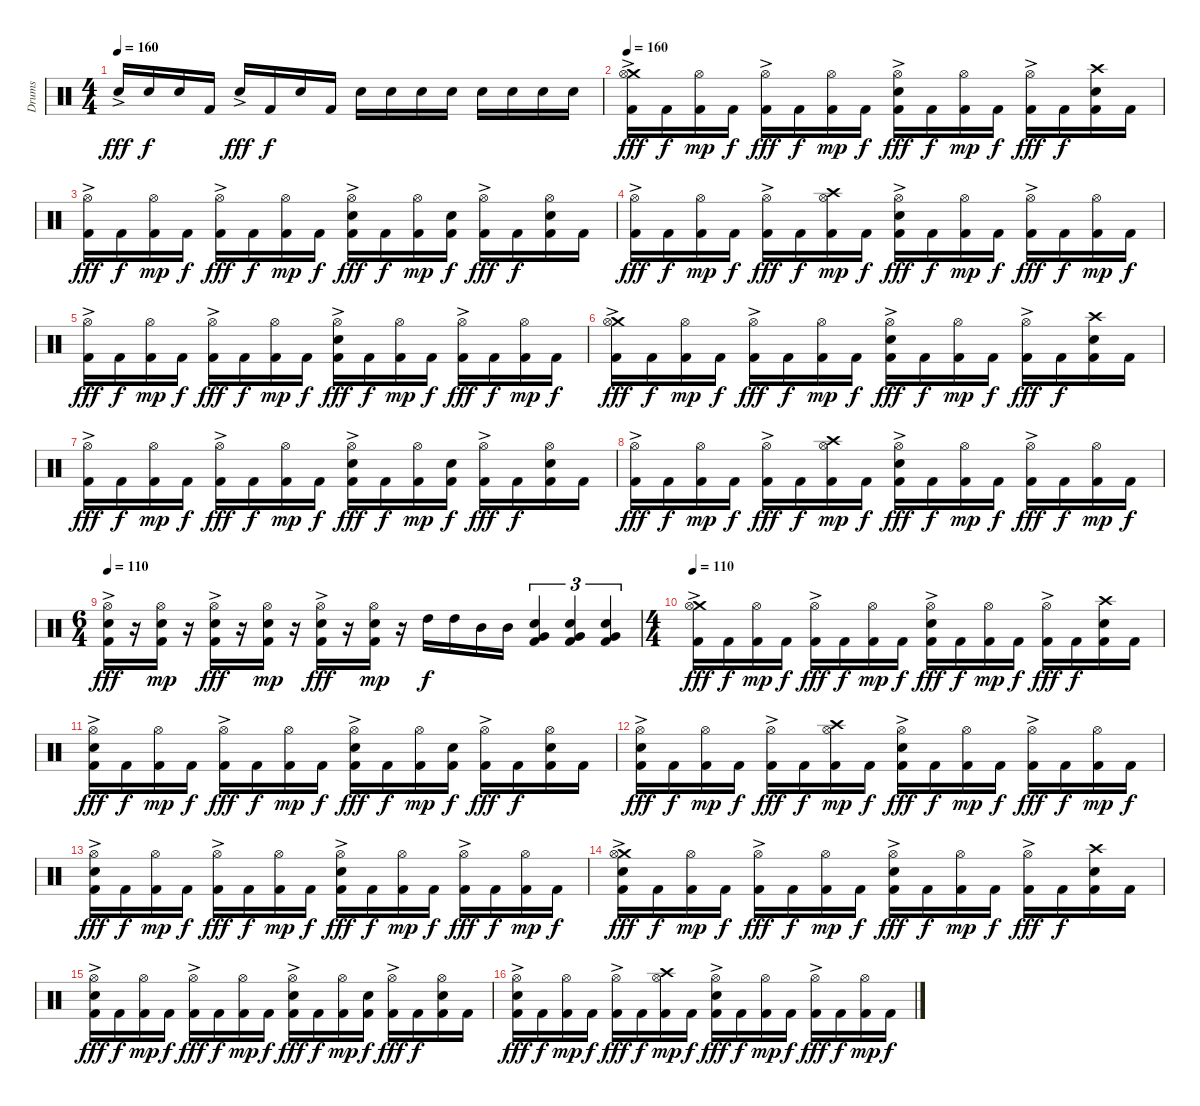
\track ("Drums" "Drums") {instrument percussion}
\staff {score}
\articulation defaults
\ts (4 4)
\tempo 160
\clef neutral
\ks c "Electric Snare (hit)"{ac}.16{dy fff} "Electric Snare (hit)".16{dy f} "Electric Snare (hit)".16 "Kick (hit) 2".16 "Electric Snare (hit)"{ac}.16{dy fff} "Kick (hit) 2".16{dy f} "Electric Snare (hit)".16 "Kick (hit) 2".16 "Electric Snare (hit)".16 "Electric Snare (hit)".16 "Electric Snare (hit)".16 "Electric Snare (hit)".16 "Electric Snare (hit)".16 "Electric Snare (hit)".16 "Electric Snare (hit)".16 "Electric Snare (hit)".16
|
\tempo 160
("Crash medium (hit)" "Hi-Hat (open)"{ac} "Kick (hit) 2").16{dy fff} "Kick (hit) 2".16{dy f} ("Hi-Hat (open)" "Kick (hit) 2").16{dy mp} "Kick (hit) 2".16{dy f} ("Hi-Hat (open)"{ac} "Kick (hit) 2").16{dy fff} "Kick (hit) 2".16{dy f} ("Hi-Hat (open)" "Kick (hit) 2").16{dy mp} "Kick (hit) 2".16{dy f} ("Hi-Hat (open)"{ac} "Electric Snare (hit)" "Kick (hit) 2").16{dy fff} "Kick (hit) 2".16{dy f} ("Hi-Hat (open)" "Kick (hit) 2").16{dy mp} "Kick (hit) 2".16{dy f} ("Hi-Hat (open)"{ac} "Kick (hit) 2").16{dy fff} "Kick (hit) 2".16{dy f} ("Crash high (hit)" "Electric Snare (hit)" "Kick (hit) 2").16 "Kick (hit) 2".16 |
("Hi-Hat (open)"{ac} "Kick (hit) 2").16{dy fff} "Kick (hit) 2".16{dy f} ("Hi-Hat (open)" "Kick (hit) 2").16{dy mp} "Kick (hit) 2".16{dy f} ("Hi-Hat (open)"{ac} "Kick (hit) 2").16{dy fff} "Kick (hit) 2".16{dy f} ("Hi-Hat (open)" "Kick (hit) 2").16{dy mp} "Kick (hit) 2".16{dy f} ("Hi-Hat (open)"{ac} "Electric Snare (hit)" "Kick (hit) 2").16{dy fff} "Kick (hit) 2".16{dy f} ("Hi-Hat (open)" "Kick (hit) 2").16{dy mp} ("Electric Snare (hit)" "Kick (hit) 2").16{dy f} ("Hi-Hat (open)"{ac} "Kick (hit) 2").16{dy fff} "Kick (hit) 2".16{dy f} ("Hi-Hat (open)" "Electric Snare (hit)" "Kick (hit) 2").16 "Kick (hit) 2".16 |
("Hi-Hat (open)"{ac} "Kick (hit) 2").16{dy fff} "Kick (hit) 2".16{dy f} ("Hi-Hat (open)" "Kick (hit) 2").16{dy mp} "Kick (hit) 2".16{dy f} ("Hi-Hat (open)"{ac} "Kick (hit) 2").16{dy fff} "Kick (hit) 2".16{dy f} ("Crash high (hit)" "Hi-Hat (open)" "Kick (hit) 2").16{dy mp} "Kick (hit) 2".16{dy f} ("Hi-Hat (open)"{ac} "Electric Snare (hit)" "Kick (hit) 2").16{dy fff} "Kick (hit) 2".16{dy f} ("Hi-Hat (open)" "Kick (hit) 2").16{dy mp} "Kick (hit) 2".16{dy f} ("Hi-Hat (open)"{ac} "Kick (hit) 2").16{dy fff} "Kick (hit) 2".16{dy f} ("Hi-Hat (open)" "Kick (hit) 2").16{dy mp} "Kick (hit) 2".16{dy f} |
("Hi-Hat (open)"{ac} "Kick (hit) 2").16{dy fff} "Kick (hit) 2".16{dy f} ("Hi-Hat (open)" "Kick (hit) 2").16{dy mp} "Kick (hit) 2".16{dy f} ("Hi-Hat (open)"{ac} "Kick (hit) 2").16{dy fff} "Kick (hit) 2".16{dy f} ("Hi-Hat (open)" "Kick (hit) 2").16{dy mp} "Kick (hit) 2".16{dy f} ("Hi-Hat (open)"{ac} "Electric Snare (hit)" "Kick (hit) 2").16{dy fff} "Kick (hit) 2".16{dy f} ("Hi-Hat (open)" "Kick (hit) 2").16{dy mp} "Kick (hit) 2".16{dy f} ("Hi-Hat (open)"{ac} "Kick (hit) 2").16{dy fff} "Kick (hit) 2".16{dy f} ("Hi-Hat (open)" "Kick (hit) 2").16{dy mp} "Kick (hit) 2".16{dy f} |
("Crash medium (hit)" "Hi-Hat (open)"{ac} "Kick (hit) 2").16{dy fff} "Kick (hit) 2".16{dy f} ("Hi-Hat (open)" "Kick (hit) 2").16{dy mp} "Kick (hit) 2".16{dy f} ("Hi-Hat (open)"{ac} "Kick (hit) 2").16{dy fff} "Kick (hit) 2".16{dy f} ("Hi-Hat (open)" "Kick (hit) 2").16{dy mp} "Kick (hit) 2".16{dy f} ("Hi-Hat (open)"{ac} "Electric Snare (hit)" "Kick (hit) 2").16{dy fff} "Kick (hit) 2".16{dy f} ("Hi-Hat (open)" "Kick (hit) 2").16{dy mp} "Kick (hit) 2".16{dy f} ("Hi-Hat (open)"{ac} "Kick (hit) 2").16{dy fff} "Kick (hit) 2".16{dy f} ("Crash high (hit)" "Electric Snare (hit)" "Kick (hit) 2").16 "Kick (hit) 2".16 |
("Hi-Hat (open)"{ac} "Kick (hit) 2").16{dy fff} "Kick (hit) 2".16{dy f} ("Hi-Hat (open)" "Kick (hit) 2").16{dy mp} "Kick (hit) 2".16{dy f} ("Hi-Hat (open)"{ac} "Kick (hit) 2").16{dy fff} "Kick (hit) 2".16{dy f} ("Hi-Hat (open)" "Kick (hit) 2").16{dy mp} "Kick (hit) 2".16{dy f} ("Hi-Hat (open)"{ac} "Electric Snare (hit)" "Kick (hit) 2").16{dy fff} "Kick (hit) 2".16{dy f} ("Hi-Hat (open)" "Kick (hit) 2").16{dy mp} ("Electric Snare (hit)" "Kick (hit) 2").16{dy f} ("Hi-Hat (open)"{ac} "Kick (hit) 2").16{dy fff} "Kick (hit) 2".16{dy f} ("Hi-Hat (open)" "Electric Snare (hit)" "Kick (hit) 2").16 "Kick (hit) 2".16 |
("Hi-Hat (open)"{ac} "Kick (hit) 2").16{dy fff} "Kick (hit) 2".16{dy f} ("Hi-Hat (open)" "Kick (hit) 2").16{dy mp} "Kick (hit) 2".16{dy f} ("Hi-Hat (open)"{ac} "Kick (hit) 2").16{dy fff} "Kick (hit) 2".16{dy f} ("Crash high (hit)" "Hi-Hat (open)" "Kick (hit) 2").16{dy mp} "Kick (hit) 2".16{dy f} ("Hi-Hat (open)"{ac} "Electric Snare (hit)" "Kick (hit) 2").16{dy fff} "Kick (hit) 2".16{dy f} ("Hi-Hat (open)" "Kick (hit) 2").16{dy mp} "Kick (hit) 2".16{dy f} ("Hi-Hat (open)"{ac} "Kick (hit) 2").16{dy fff} "Kick (hit) 2".16{dy f} ("Hi-Hat (open)" "Kick (hit) 2").16{dy mp} "Kick (hit) 2".16{dy f} |
\ts (6 4)
\tempo 110
("Hi-Hat (open)"{ac} "Electric Snare (hit)" "Kick (hit) 2").16{dy fff} r.16 ("Hi-Hat (open)" "Electric Snare (hit)" "Kick (hit) 2").16{dy mp} r.16 ("Hi-Hat (open)"{ac} "Electric Snare (hit)" "Kick (hit) 2").16{dy fff} r.16 ("Hi-Hat (open)" "Electric Snare (hit)" "Kick (hit) 2").16{dy mp} r.16 ("Hi-Hat (open)"{ac} "Electric Snare (hit)" "Kick (hit) 2").16{dy fff} r.16 ("Hi-Hat (open)" "Electric Snare (hit)" "Kick (hit) 2").16{dy mp} r.16 "High Tom (hit)".16{dy f} "High Tom (hit)".16 "Mid Tom (hit)".16 "Mid Tom (hit)".16 ("Very Low Tom (hit)" "Electric Snare (hit)" "Kick (hit) 2").4{tu (3 2)} ("Very Low Tom (hit)" "Electric Snare (hit)" "Kick (hit) 2").4{tu (3 2)} ("Very Low Tom (hit)" "Electric Snare (hit)" "Kick (hit) 2").4{tu (3 2)} |
\ts (4 4)
\tempo 160
\tempo 110
("Crash medium (hit)" "Hi-Hat (open)"{ac} "Kick (hit) 2").16{dy fff} "Kick (hit) 2".16{dy f} ("Hi-Hat (open)" "Kick (hit) 2").16{dy mp} "Kick (hit) 2".16{dy f} ("Hi-Hat (open)"{ac} "Kick (hit) 2").16{dy fff} "Kick (hit) 2".16{dy f} ("Hi-Hat (open)" "Kick (hit) 2").16{dy mp} "Kick (hit) 2".16{dy f} ("Hi-Hat (open)"{ac} "Electric Snare (hit)" "Kick (hit) 2").16{dy fff} "Kick (hit) 2".16{dy f} ("Hi-Hat (open)" "Kick (hit) 2").16{dy mp} "Kick (hit) 2".16{dy f} ("Hi-Hat (open)"{ac} "Kick (hit) 2").16{dy fff} "Kick (hit) 2".16{dy f} ("Crash high (hit)" "Electric Snare (hit)" "Kick (hit) 2").16 "Kick (hit) 2".16 |
("Hi-Hat (open)"{ac} "Electric Snare (hit)" "Kick (hit) 2").16{dy fff} "Kick (hit) 2".16{dy f} ("Hi-Hat (open)" "Kick (hit) 2").16{dy mp} "Kick (hit) 2".16{dy f} ("Hi-Hat (open)"{ac} "Kick (hit) 2").16{dy fff} "Kick (hit) 2".16{dy f} ("Hi-Hat (open)" "Kick (hit) 2").16{dy mp} "Kick (hit) 2".16{dy f} ("Hi-Hat (open)"{ac} "Electric Snare (hit)" "Kick (hit) 2").16{dy fff} "Kick (hit) 2".16{dy f} ("Hi-Hat (open)" "Kick (hit) 2").16{dy mp} ("Electric Snare (hit)" "Kick (hit) 2").16{dy f} ("Hi-Hat (open)"{ac} "Kick (hit) 2").16{dy fff} "Kick (hit) 2".16{dy f} ("Hi-Hat (open)" "Electric Snare (hit)" "Kick (hit) 2").16 "Kick (hit) 2".16 |
("Hi-Hat (open)"{ac} "Electric Snare (hit)" "Kick (hit) 2").16{dy fff} "Kick (hit) 2".16{dy f} ("Hi-Hat (open)" "Kick (hit) 2").16{dy mp} "Kick (hit) 2".16{dy f} ("Hi-Hat (open)"{ac} "Kick (hit) 2").16{dy fff} "Kick (hit) 2".16{dy f} ("Crash high (hit)" "Hi-Hat (open)" "Kick (hit) 2").16{dy mp} "Kick (hit) 2".16{dy f} ("Hi-Hat (open)"{ac} "Electric Snare (hit)" "Kick (hit) 2").16{dy fff} "Kick (hit) 2".16{dy f} ("Hi-Hat (open)" "Kick (hit) 2").16{dy mp} "Kick (hit) 2".16{dy f} ("Hi-Hat (open)"{ac} "Kick (hit) 2").16{dy fff} "Kick (hit) 2".16{dy f} ("Hi-Hat (open)" "Kick (hit) 2").16{dy mp} "Kick (hit) 2".16{dy f} |
("Hi-Hat (open)"{ac} "Electric Snare (hit)" "Kick (hit) 2").16{dy fff} "Kick (hit) 2".16{dy f} ("Hi-Hat (open)" "Kick (hit) 2").16{dy mp} "Kick (hit) 2".16{dy f} ("Hi-Hat (open)"{ac} "Kick (hit) 2").16{dy fff} "Kick (hit) 2".16{dy f} ("Hi-Hat (open)" "Kick (hit) 2").16{dy mp} "Kick (hit) 2".16{dy f} ("Hi-Hat (open)"{ac} "Electric Snare (hit)" "Kick (hit) 2").16{dy fff} "Kick (hit) 2".16{dy f} ("Hi-Hat (open)" "Kick (hit) 2").16{dy mp} "Kick (hit) 2".16{dy f} ("Hi-Hat (open)"{ac} "Kick (hit) 2").16{dy fff} "Kick (hit) 2".16{dy f} ("Hi-Hat (open)" "Kick (hit) 2").16{dy mp} "Kick (hit) 2".16{dy f} |
("Crash medium (hit)" "Hi-Hat (open)"{ac} "Electric Snare (hit)" "Kick (hit) 2").16{dy fff} "Kick (hit) 2".16{dy f} ("Hi-Hat (open)" "Kick (hit) 2").16{dy mp} "Kick (hit) 2".16{dy f} ("Hi-Hat (open)"{ac} "Kick (hit) 2").16{dy fff} "Kick (hit) 2".16{dy f} ("Hi-Hat (open)" "Kick (hit) 2").16{dy mp} "Kick (hit) 2".16{dy f} ("Hi-Hat (open)"{ac} "Electric Snare (hit)" "Kick (hit) 2").16{dy fff} "Kick (hit) 2".16{dy f} ("Hi-Hat (open)" "Kick (hit) 2").16{dy mp} "Kick (hit) 2".16{dy f} ("Hi-Hat (open)"{ac} "Kick (hit) 2").16{dy fff} "Kick (hit) 2".16{dy f} ("Crash high (hit)" "Electric Snare (hit)" "Kick (hit) 2").16 "Kick (hit) 2".16 |
("Hi-Hat (open)"{ac} "Electric Snare (hit)" "Kick (hit) 2").16{dy fff} "Kick (hit) 2".16{dy f} ("Hi-Hat (open)" "Kick (hit) 2").16{dy mp} "Kick (hit) 2".16{dy f} ("Hi-Hat (open)"{ac} "Kick (hit) 2").16{dy fff} "Kick (hit) 2".16{dy f} ("Hi-Hat (open)" "Kick (hit) 2").16{dy mp} "Kick (hit) 2".16{dy f} ("Hi-Hat (open)"{ac} "Electric Snare (hit)" "Kick (hit) 2").16{dy fff} "Kick (hit) 2".16{dy f} ("Hi-Hat (open)" "Kick (hit) 2").16{dy mp} ("Electric Snare (hit)" "Kick (hit) 2").16{dy f} ("Hi-Hat (open)"{ac} "Kick (hit) 2").16{dy fff} "Kick (hit) 2".16{dy f} ("Hi-Hat (open)" "Electric Snare (hit)" "Kick (hit) 2").16 "Kick (hit) 2".16 |
("Hi-Hat (open)"{ac} "Electric Snare (hit)" "Kick (hit) 2").16{dy fff} "Kick (hit) 2".16{dy f} ("Hi-Hat (open)" "Kick (hit) 2").16{dy mp} "Kick (hit) 2".16{dy f} ("Hi-Hat (open)"{ac} "Kick (hit) 2").16{dy fff} "Kick (hit) 2".16{dy f} ("Crash high (hit)" "Hi-Hat (open)" "Kick (hit) 2").16{dy mp} "Kick (hit) 2".16{dy f} ("Hi-Hat (open)"{ac} "Electric Snare (hit)" "Kick (hit) 2").16{dy fff} "Kick (hit) 2".16{dy f} ("Hi-Hat (open)" "Kick (hit) 2").16{dy mp} "Kick (hit) 2".16{dy f} ("Hi-Hat (open)"{ac} "Kick (hit) 2").16{dy fff} "Kick (hit) 2".16{dy f} ("Hi-Hat (open)" "Kick (hit) 2").16{dy mp} "Kick (hit) 2".16{dy f}
